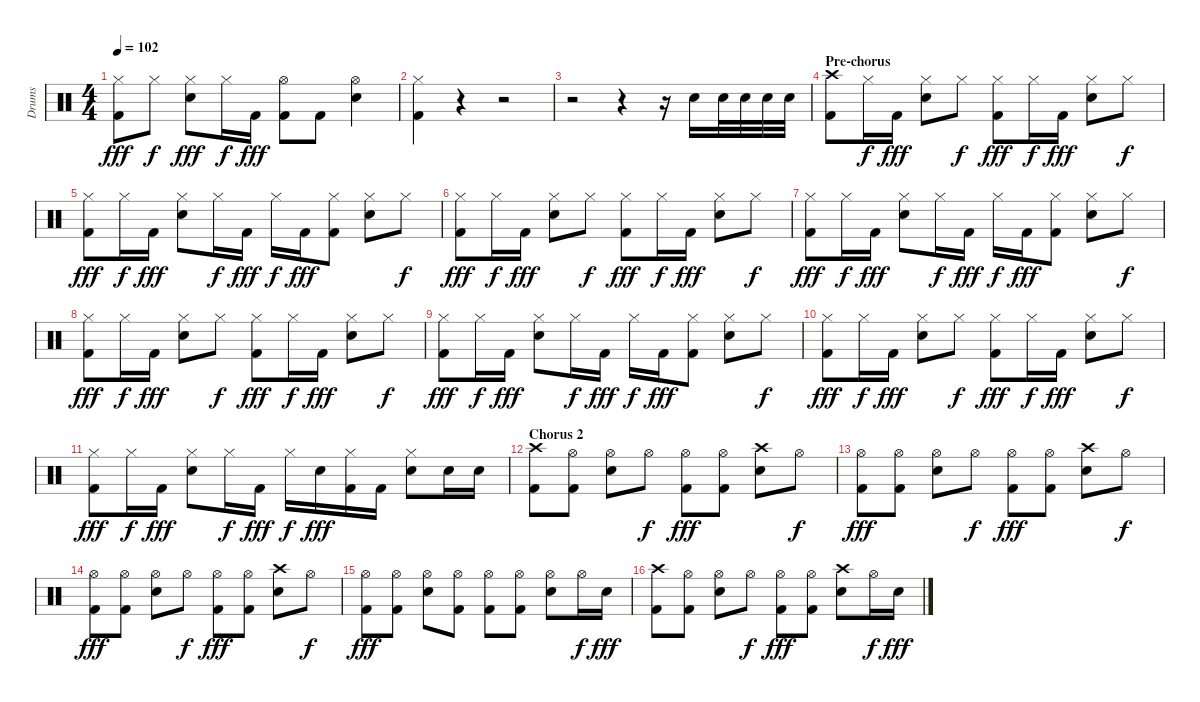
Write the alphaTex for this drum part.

\track ("Drums" "Drums") {instrument percussion}
\staff {score}
\articulation defaults
\ts (4 4)
\tempo 102
\clef neutral
\ks c
("Hi-Hat (closed)" "Kick (hit) 2").8{dy fff} "Hi-Hat (closed)".8{dy f} ("Hi-Hat (closed)" "Electric Snare (hit)").8{dy fff} "Hi-Hat (closed)".16{dy f} "Kick (hit) 2".16{dy fff} ("Hi-Hat (open)" "Kick (hit) 2").8 "Kick (hit) 2".8 ("Hi-Hat (open)" "Electric Snare (hit)").4 |
("Hi-Hat (closed)" "Kick (hit) 2").4 r.4 r.2 |
r.2 r.4 r.16 "Electric Snare (hit)".16 "Electric Snare (hit)".32 "Electric Snare (hit)".32 "Electric Snare (hit)".32 "Electric Snare (hit)".32 |
\section ("" "Pre-chorus")
("Crash high (hit)" "Kick (hit) 2").8 "Hi-Hat (closed)".16{dy f} "Kick (hit) 2".16{dy fff} ("Hi-Hat (closed)" "Electric Snare (hit)").8 "Hi-Hat (closed)".8{dy f} ("Hi-Hat (closed)" "Kick (hit) 2").8{dy fff} "Hi-Hat (closed)".16{dy f} "Kick (hit) 2".16{dy fff} ("Hi-Hat (closed)" "Electric Snare (hit)").8 "Hi-Hat (closed)".8{dy f} |
("Hi-Hat (closed)" "Kick (hit) 2").8{dy fff} "Hi-Hat (closed)".16{dy f} "Kick (hit) 2".16{dy fff} ("Hi-Hat (closed)" "Electric Snare (hit)").8 "Hi-Hat (closed)".16{dy f} "Kick (hit) 2".16{dy fff} "Hi-Hat (closed)".16{dy f} "Kick (hit) 2".16{dy fff} ("Hi-Hat (closed)" "Kick (hit) 2").8 ("Hi-Hat (closed)" "Electric Snare (hit)").8 "Hi-Hat (closed)".8{dy f} |
("Hi-Hat (closed)" "Kick (hit) 2").8{dy fff} "Hi-Hat (closed)".16{dy f} "Kick (hit) 2".16{dy fff} ("Hi-Hat (closed)" "Electric Snare (hit)").8 "Hi-Hat (closed)".8{dy f} ("Hi-Hat (closed)" "Kick (hit) 2").8{dy fff} "Hi-Hat (closed)".16{dy f} "Kick (hit) 2".16{dy fff} ("Hi-Hat (closed)" "Electric Snare (hit)").8 "Hi-Hat (closed)".8{dy f} |
("Hi-Hat (closed)" "Kick (hit) 2").8{dy fff} "Hi-Hat (closed)".16{dy f} "Kick (hit) 2".16{dy fff} ("Hi-Hat (closed)" "Electric Snare (hit)").8 "Hi-Hat (closed)".16{dy f} "Kick (hit) 2".16{dy fff} "Hi-Hat (closed)".16{dy f} "Kick (hit) 2".16{dy fff} ("Hi-Hat (closed)" "Kick (hit) 2").8 ("Hi-Hat (closed)" "Electric Snare (hit)").8 "Hi-Hat (closed)".8{dy f} |
("Hi-Hat (closed)" "Kick (hit) 2").8{dy fff} "Hi-Hat (closed)".16{dy f} "Kick (hit) 2".16{dy fff} ("Hi-Hat (closed)" "Electric Snare (hit)").8 "Hi-Hat (closed)".8{dy f} ("Hi-Hat (closed)" "Kick (hit) 2").8{dy fff} "Hi-Hat (closed)".16{dy f} "Kick (hit) 2".16{dy fff} ("Hi-Hat (closed)" "Electric Snare (hit)").8 "Hi-Hat (closed)".8{dy f} |
("Hi-Hat (closed)" "Kick (hit) 2").8{dy fff} "Hi-Hat (closed)".16{dy f} "Kick (hit) 2".16{dy fff} ("Hi-Hat (closed)" "Electric Snare (hit)").8 "Hi-Hat (closed)".16{dy f} "Kick (hit) 2".16{dy fff} "Hi-Hat (closed)".16{dy f} "Kick (hit) 2".16{dy fff} ("Hi-Hat (closed)" "Kick (hit) 2").8 ("Hi-Hat (closed)" "Electric Snare (hit)").8 "Hi-Hat (closed)".8{dy f} |
("Hi-Hat (closed)" "Kick (hit) 2").8{dy fff} "Hi-Hat (closed)".16{dy f} "Kick (hit) 2".16{dy fff} ("Hi-Hat (closed)" "Electric Snare (hit)").8 "Hi-Hat (closed)".8{dy f} ("Hi-Hat (closed)" "Kick (hit) 2").8{dy fff} "Hi-Hat (closed)".16{dy f} "Kick (hit) 2".16{dy fff} ("Hi-Hat (closed)" "Electric Snare (hit)").8 "Hi-Hat (closed)".8{dy f} |
("Hi-Hat (closed)" "Kick (hit) 2").8{dy fff} "Hi-Hat (closed)".16{dy f} "Kick (hit) 2".16{dy fff} ("Hi-Hat (closed)" "Electric Snare (hit)").8 "Hi-Hat (closed)".16{dy f} "Kick (hit) 2".16{dy fff} "Hi-Hat (closed)".16{dy f} "Electric Snare (hit)".16{dy fff} ("Hi-Hat (closed)" "Kick (hit) 2").16 "Kick (hit) 2".16 ("Hi-Hat (closed)" "Electric Snare (hit)").8 "Electric Snare (hit)".16 "Electric Snare (hit)".16 |
\section ("" "Chorus 2")
("Crash high (hit)" "Kick (hit) 2").8 ("Hi-Hat (open)" "Kick (hit) 2").8 ("Hi-Hat (open)" "Electric Snare (hit)").8 "Hi-Hat (open)".8{dy f} ("Hi-Hat (open)" "Kick (hit) 2").8{dy fff} ("Hi-Hat (open)" "Kick (hit) 2").8 ("Crash high (hit)" "Electric Snare (hit)").8 "Hi-Hat (open)".8{dy f} |
("Hi-Hat (open)" "Kick (hit) 2").8{dy fff} ("Hi-Hat (open)" "Kick (hit) 2").8 ("Hi-Hat (open)" "Electric Snare (hit)").8 "Hi-Hat (open)".8{dy f} ("Hi-Hat (open)" "Kick (hit) 2").8{dy fff} ("Hi-Hat (open)" "Kick (hit) 2").8 ("Crash high (hit)" "Electric Snare (hit)").8 "Hi-Hat (open)".8{dy f} |
("Hi-Hat (open)" "Kick (hit) 2").8{dy fff} ("Hi-Hat (open)" "Kick (hit) 2").8 ("Hi-Hat (open)" "Electric Snare (hit)").8 "Hi-Hat (open)".8{dy f} ("Hi-Hat (open)" "Kick (hit) 2").8{dy fff} ("Hi-Hat (open)" "Kick (hit) 2").8 ("Crash high (hit)" "Electric Snare (hit)").8 "Hi-Hat (open)".8{dy f} |
("Hi-Hat (open)" "Kick (hit) 2").8{dy fff} ("Hi-Hat (open)" "Kick (hit) 2").8 ("Hi-Hat (open)" "Electric Snare (hit)").8 ("Hi-Hat (open)" "Kick (hit) 2").8 ("Hi-Hat (open)" "Kick (hit) 2").8 ("Hi-Hat (open)" "Kick (hit) 2").8 ("Hi-Hat (open)" "Electric Snare (hit)").8 "Hi-Hat (open)".16{dy f} "Electric Snare (hit)".16{dy fff} |
("Crash high (hit)" "Kick (hit) 2").8 ("Hi-Hat (open)" "Kick (hit) 2").8 ("Hi-Hat (open)" "Electric Snare (hit)").8 "Hi-Hat (open)".8{dy f} ("Hi-Hat (open)" "Kick (hit) 2").8{dy fff} ("Hi-Hat (open)" "Kick (hit) 2").8 ("Crash high (hit)" "Electric Snare (hit)").8 "Hi-Hat (open)".16{dy f} "Electric Snare (hit)".16{dy fff}
